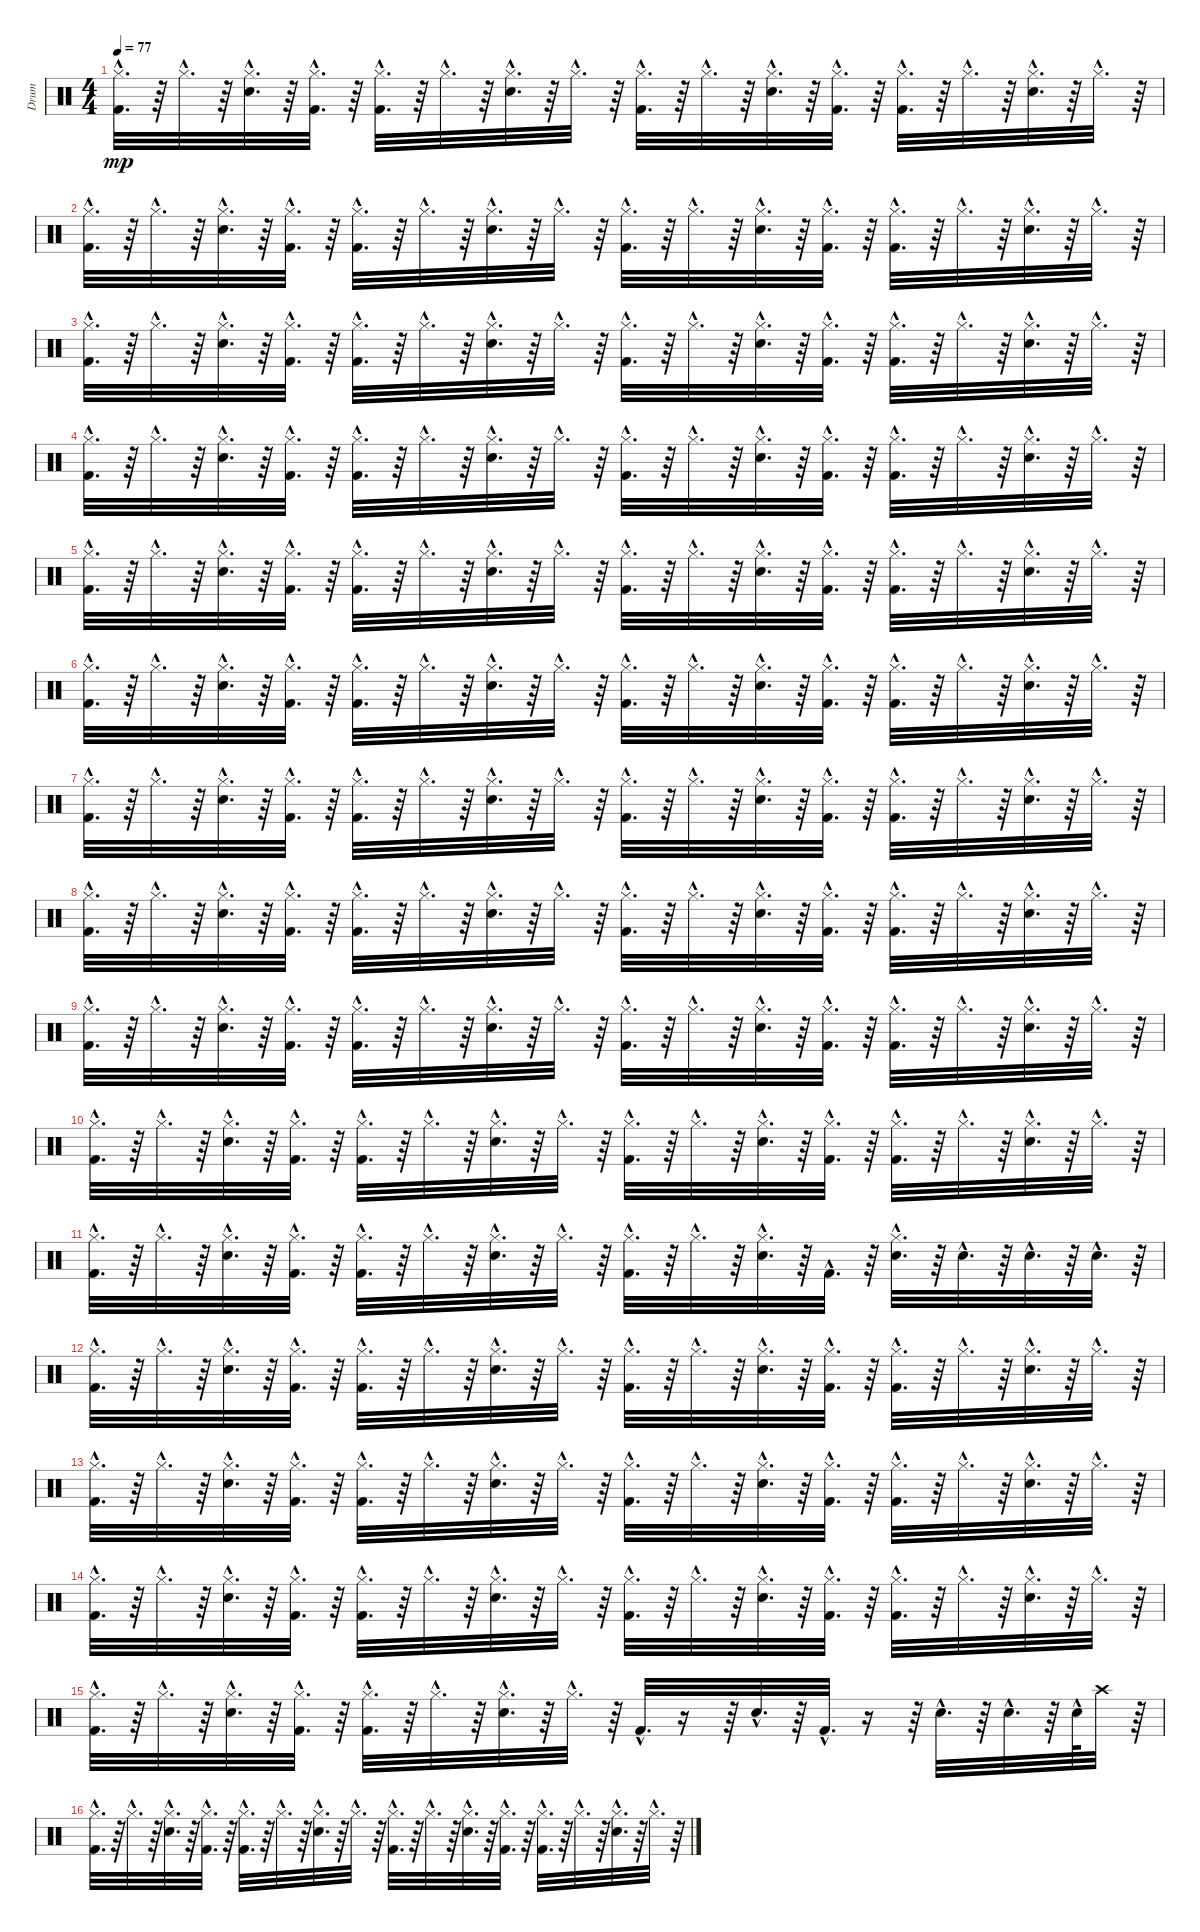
\track ("Drum" "Drum") {instrument percussion}
\staff {score}
\articulation defaults
\ts (4 4)
\tempo 77
\clef neutral
\ks c
("Hi-Hat (closed)"{hac} "Kick (hit) 2"{hac}).32{d dy mp} r.64 "Hi-Hat (closed)"{hac}.32{d} r.64 ("Snare (hit) 2"{hac} "Hi-Hat (closed)"{hac}).32{d} r.64 ("Hi-Hat (closed)"{hac} "Kick (hit) 2"{hac}).32{d} r.64 ("Kick (hit) 2"{hac} "Hi-Hat (closed)"{hac}).32{d} r.64 "Hi-Hat (closed)"{hac}.32{d} r.64 ("Hi-Hat (closed)"{hac} "Snare (hit) 2"{hac}).32{d} r.64 "Hi-Hat (closed)"{hac}.32{d} r.64 ("Kick (hit) 2"{hac} "Hi-Hat (closed)"{hac}).32{d} r.64 "Hi-Hat (closed)"{hac}.32{d} r.64 ("Snare (hit) 2"{hac} "Hi-Hat (closed)"{hac}).32{d} r.64 ("Hi-Hat (closed)"{hac} "Kick (hit) 2"{hac}).32{d} r.64 ("Kick (hit) 2"{hac} "Hi-Hat (closed)"{hac}).32{d} r.64 "Hi-Hat (closed)"{hac}.32{d} r.64 ("Snare (hit) 2"{hac} "Hi-Hat (closed)"{hac}).32{d} r.64 "Hi-Hat (closed)"{hac}.32{d} r.64 |
("Hi-Hat (closed)"{hac} "Kick (hit) 2"{hac}).32{d} r.64 "Hi-Hat (closed)"{hac}.32{d} r.64 ("Snare (hit) 2"{hac} "Hi-Hat (closed)"{hac}).32{d} r.64 ("Kick (hit) 2"{hac} "Hi-Hat (closed)"{hac}).32{d} r.64 ("Kick (hit) 2"{hac} "Hi-Hat (closed)"{hac}).32{d} r.64 "Hi-Hat (closed)"{hac}.32{d} r.64 ("Hi-Hat (closed)"{hac} "Snare (hit) 2"{hac}).32{d} r.64 "Hi-Hat (closed)"{hac}.32{d} r.64 ("Kick (hit) 2"{hac} "Hi-Hat (closed)"{hac}).32{d} r.64 "Hi-Hat (closed)"{hac}.32{d} r.64 ("Snare (hit) 2"{hac} "Hi-Hat (closed)"{hac}).32{d} r.64 ("Hi-Hat (closed)"{hac} "Kick (hit) 2"{hac}).32{d} r.64 ("Kick (hit) 2"{hac} "Hi-Hat (closed)"{hac}).32{d} r.64 "Hi-Hat (closed)"{hac}.32{d} r.64 ("Snare (hit) 2"{hac} "Hi-Hat (closed)"{hac}).32{d} r.64 "Hi-Hat (closed)"{hac}.32{d} r.64 |
("Hi-Hat (closed)"{hac} "Kick (hit) 2"{hac}).32{d} r.64 "Hi-Hat (closed)"{hac}.32{d} r.64 ("Hi-Hat (closed)"{hac} "Snare (hit) 2"{hac}).32{d} r.64 ("Hi-Hat (closed)"{hac} "Kick (hit) 2"{hac}).32{d} r.64 ("Hi-Hat (closed)"{hac} "Kick (hit) 2"{hac}).32{d} r.64 "Hi-Hat (closed)"{hac}.32{d} r.64 ("Hi-Hat (closed)"{hac} "Snare (hit) 2"{hac}).32{d} r.64 "Hi-Hat (closed)"{hac}.32{d} r.64 ("Kick (hit) 2"{hac} "Hi-Hat (closed)"{hac}).32{d} r.64 "Hi-Hat (closed)"{hac}.32{d} r.64 ("Hi-Hat (closed)"{hac} "Snare (hit) 2"{hac}).32{d} r.64 ("Kick (hit) 2"{hac} "Hi-Hat (closed)"{hac}).32{d} r.64 ("Hi-Hat (closed)"{hac} "Kick (hit) 2"{hac}).32{d} r.64 "Hi-Hat (closed)"{hac}.32{d} r.64 ("Snare (hit) 2"{hac} "Hi-Hat (closed)"{hac}).32{d} r.64 "Hi-Hat (closed)"{hac}.32{d} r.64 |
("Kick (hit) 2"{hac} "Hi-Hat (closed)"{hac}).32{d} r.64 "Hi-Hat (closed)"{hac}.32{d} r.64 ("Hi-Hat (closed)"{hac} "Snare (hit) 2"{hac}).32{d} r.64 ("Kick (hit) 2"{hac} "Hi-Hat (closed)"{hac}).32{d} r.64 ("Hi-Hat (closed)"{hac} "Kick (hit) 2"{hac}).32{d} r.64 "Hi-Hat (closed)"{hac}.32{d} r.64 ("Hi-Hat (closed)"{hac} "Snare (hit) 2"{hac}).32{d} r.64 "Hi-Hat (closed)"{hac}.32{d} r.64 ("Kick (hit) 2"{hac} "Hi-Hat (closed)"{hac}).32{d} r.64 "Hi-Hat (closed)"{hac}.32{d} r.64 ("Snare (hit) 2"{hac} "Hi-Hat (closed)"{hac}).32{d} r.64 ("Hi-Hat (closed)"{hac} "Kick (hit) 2"{hac}).32{d} r.64 ("Kick (hit) 2"{hac} "Hi-Hat (closed)"{hac}).32{d} r.64 "Hi-Hat (closed)"{hac}.32{d} r.64 ("Snare (hit) 2"{hac} "Hi-Hat (closed)"{hac}).32{d} r.64 "Hi-Hat (closed)"{hac}.32{d} r.64 |
("Hi-Hat (closed)"{hac} "Kick (hit) 2"{hac}).32{d} r.64 "Hi-Hat (closed)"{hac}.32{d} r.64 ("Hi-Hat (closed)"{hac} "Snare (hit) 2"{hac}).32{d} r.64 ("Kick (hit) 2"{hac} "Hi-Hat (closed)"{hac}).32{d} r.64 ("Kick (hit) 2"{hac} "Hi-Hat (closed)"{hac}).32{d} r.64 "Hi-Hat (closed)"{hac}.32{d} r.64 ("Snare (hit) 2"{hac} "Hi-Hat (closed)"{hac}).32{d} r.64 "Hi-Hat (closed)"{hac}.32{d} r.64 ("Hi-Hat (closed)"{hac} "Kick (hit) 2"{hac}).32{d} r.64 "Hi-Hat (closed)"{hac}.32{d} r.64 ("Snare (hit) 2"{hac} "Hi-Hat (closed)"{hac}).32{d} r.64 ("Hi-Hat (closed)"{hac} "Kick (hit) 2"{hac}).32{d} r.64 ("Hi-Hat (closed)"{hac} "Kick (hit) 2"{hac}).32{d} r.64 "Hi-Hat (closed)"{hac}.32{d} r.64 ("Hi-Hat (closed)"{hac} "Snare (hit) 2"{hac}).32{d} r.64 "Hi-Hat (closed)"{hac}.32{d} r.64 |
("Hi-Hat (closed)"{hac} "Kick (hit) 2"{hac}).32{d} r.64 "Hi-Hat (closed)"{hac}.32{d} r.64 ("Hi-Hat (closed)"{hac} "Snare (hit) 2"{hac}).32{d} r.64 ("Hi-Hat (closed)"{hac} "Kick (hit) 2"{hac}).32{d} r.64 ("Hi-Hat (closed)"{hac} "Kick (hit) 2"{hac}).32{d} r.64 "Hi-Hat (closed)"{hac}.32{d} r.64 ("Hi-Hat (closed)"{hac} "Snare (hit) 2"{hac}).32{d} r.64 "Hi-Hat (closed)"{hac}.32{d} r.64 ("Hi-Hat (closed)"{hac} "Kick (hit) 2"{hac}).32{d} r.64 "Hi-Hat (closed)"{hac}.32{d} r.64 ("Snare (hit) 2"{hac} "Hi-Hat (closed)"{hac}).32{d} r.64 ("Kick (hit) 2"{hac} "Hi-Hat (closed)"{hac}).32{d} r.64 ("Hi-Hat (closed)"{hac} "Kick (hit) 2"{hac}).32{d} r.64 "Hi-Hat (closed)"{hac}.32{d} r.64 ("Snare (hit) 2"{hac} "Hi-Hat (closed)"{hac}).32{d} r.64 "Hi-Hat (closed)"{hac}.32{d} r.64 |
("Hi-Hat (closed)"{hac} "Kick (hit) 2"{hac}).32{d} r.64 "Hi-Hat (closed)"{hac}.32{d} r.64 ("Snare (hit) 2"{hac} "Hi-Hat (closed)"{hac}).32{d} r.64 ("Kick (hit) 2"{hac} "Hi-Hat (closed)"{hac}).32{d} r.64 ("Kick (hit) 2"{hac} "Hi-Hat (closed)"{hac}).32{d} r.64 "Hi-Hat (closed)"{hac}.32{d} r.64 ("Snare (hit) 2"{hac} "Hi-Hat (closed)"{hac}).32{d} r.64 "Hi-Hat (closed)"{hac}.32{d} r.64 ("Hi-Hat (closed)"{hac} "Kick (hit) 2"{hac}).32{d} r.64 "Hi-Hat (closed)"{hac}.32{d} r.64 ("Snare (hit) 2"{hac} "Hi-Hat (closed)"{hac}).32{d} r.64 ("Hi-Hat (closed)"{hac} "Kick (hit) 2"{hac}).32{d} r.64 ("Hi-Hat (closed)"{hac} "Kick (hit) 2"{hac}).32{d} r.64 "Hi-Hat (closed)"{hac}.32{d} r.64 ("Hi-Hat (closed)"{hac} "Snare (hit) 2"{hac}).32{d} r.64 "Hi-Hat (closed)"{hac}.32{d} r.64 |
("Kick (hit) 2"{hac} "Hi-Hat (closed)"{hac}).32{d} r.64 "Hi-Hat (closed)"{hac}.32{d} r.64 ("Hi-Hat (closed)"{hac} "Snare (hit) 2"{hac}).32{d} r.64 ("Kick (hit) 2"{hac} "Hi-Hat (closed)"{hac}).32{d} r.64 ("Hi-Hat (closed)"{hac} "Kick (hit) 2"{hac}).32{d} r.64 "Hi-Hat (closed)"{hac}.32{d} r.64 ("Snare (hit) 2"{hac} "Hi-Hat (closed)"{hac}).32{d} r.64 "Hi-Hat (closed)"{hac}.32{d} r.64 ("Kick (hit) 2"{hac} "Hi-Hat (closed)"{hac}).32{d} r.64 "Hi-Hat (closed)"{hac}.32{d} r.64 ("Hi-Hat (closed)"{hac} "Snare (hit) 2"{hac}).32{d} r.64 ("Hi-Hat (closed)"{hac} "Kick (hit) 2"{hac}).32{d} r.64 ("Hi-Hat (closed)"{hac} "Kick (hit) 2"{hac}).32{d} r.64 "Hi-Hat (closed)"{hac}.32{d} r.64 ("Snare (hit) 2"{hac} "Hi-Hat (closed)"{hac}).32{d} r.64 "Hi-Hat (closed)"{hac}.32{d} r.64 |
("Kick (hit) 2"{hac} "Hi-Hat (closed)"{hac}).32{d} r.64 "Hi-Hat (closed)"{hac}.32{d} r.64 ("Hi-Hat (closed)"{hac} "Snare (hit) 2"{hac}).32{d} r.64 ("Kick (hit) 2"{hac} "Hi-Hat (closed)"{hac}).32{d} r.64 ("Hi-Hat (closed)"{hac} "Kick (hit) 2"{hac}).32{d} r.64 "Hi-Hat (closed)"{hac}.32{d} r.64 ("Hi-Hat (closed)"{hac} "Snare (hit) 2"{hac}).32{d} r.64 "Hi-Hat (closed)"{hac}.32{d} r.64 ("Kick (hit) 2"{hac} "Hi-Hat (closed)"{hac}).32{d} r.64 "Hi-Hat (closed)"{hac}.32{d} r.64 ("Snare (hit) 2"{hac} "Hi-Hat (closed)"{hac}).32{d} r.64 ("Hi-Hat (closed)"{hac} "Kick (hit) 2"{hac}).32{d} r.64 ("Hi-Hat (closed)"{hac} "Kick (hit) 2"{hac}).32{d} r.64 "Hi-Hat (closed)"{hac}.32{d} r.64 ("Hi-Hat (closed)"{hac} "Snare (hit) 2"{hac}).32{d} r.64 "Hi-Hat (closed)"{hac}.32{d} r.64 |
("Kick (hit) 2"{hac} "Hi-Hat (closed)"{hac}).32{d} r.64 "Hi-Hat (closed)"{hac}.32{d} r.64 ("Snare (hit) 2"{hac} "Hi-Hat (closed)"{hac}).32{d} r.64 ("Hi-Hat (closed)"{hac} "Kick (hit) 2"{hac}).32{d} r.64 ("Kick (hit) 2"{hac} "Hi-Hat (closed)"{hac}).32{d} r.64 "Hi-Hat (closed)"{hac}.32{d} r.64 ("Snare (hit) 2"{hac} "Hi-Hat (closed)"{hac}).32{d} r.64 "Hi-Hat (closed)"{hac}.32{d} r.64 ("Hi-Hat (closed)"{hac} "Kick (hit) 2"{hac}).32{d} r.64 "Hi-Hat (closed)"{hac}.32{d} r.64 ("Snare (hit) 2"{hac} "Hi-Hat (closed)"{hac}).32{d} r.64 ("Kick (hit) 2"{hac} "Hi-Hat (closed)"{hac}).32{d} r.64 ("Kick (hit) 2"{hac} "Hi-Hat (closed)"{hac}).32{d} r.64 "Hi-Hat (closed)"{hac}.32{d} r.64 ("Snare (hit) 2"{hac} "Hi-Hat (closed)"{hac}).32{d} r.64 "Hi-Hat (closed)"{hac}.32{d} r.64 |
("Hi-Hat (closed)"{hac} "Kick (hit) 2"{hac}).32{d} r.64 "Hi-Hat (closed)"{hac}.32{d} r.64 ("Snare (hit) 2"{hac} "Hi-Hat (closed)"{hac}).32{d} r.64 ("Hi-Hat (closed)"{hac} "Kick (hit) 2"{hac}).32{d} r.64 ("Hi-Hat (closed)"{hac} "Kick (hit) 2"{hac}).32{d} r.64 "Hi-Hat (closed)"{hac}.32{d} r.64 ("Snare (hit) 2"{hac} "Hi-Hat (closed)"{hac}).32{d} r.64 "Hi-Hat (closed)"{hac}.32{d} r.64 ("Hi-Hat (closed)"{hac} "Kick (hit) 2"{hac}).32{d} r.64 "Hi-Hat (closed)"{hac}.32{d} r.64 ("Hi-Hat (closed)"{hac} "Snare (hit) 2"{hac}).32{d} r.64 "Kick (hit) 2"{hac}.32{d} r.64 ("Hi-Hat (closed)"{hac} "Electric Snare (hit)"{hac}).32{d} r.64 "Electric Snare (hit)"{hac}.32{d} r.64 "Electric Snare (hit)"{hac}.32{d} r.64 "Electric Snare (hit)"{hac}.32{d} r.64 |
("Kick (hit) 2"{hac} "Hi-Hat (closed)"{hac}).32{d} r.64 "Hi-Hat (closed)"{hac}.32{d} r.64 ("Snare (hit) 2"{hac} "Hi-Hat (closed)"{hac}).32{d} r.64 ("Kick (hit) 2"{hac} "Hi-Hat (closed)"{hac}).32{d} r.64 ("Hi-Hat (closed)"{hac} "Kick (hit) 2"{hac}).32{d} r.64 "Hi-Hat (closed)"{hac}.32{d} r.64 ("Hi-Hat (closed)"{hac} "Snare (hit) 2"{hac}).32{d} r.64 "Hi-Hat (closed)"{hac}.32{d} r.64 ("Kick (hit) 2"{hac} "Hi-Hat (closed)"{hac}).32{d} r.64 "Hi-Hat (closed)"{hac}.32{d} r.64 ("Snare (hit) 2"{hac} "Hi-Hat (closed)"{hac}).32{d} r.64 ("Kick (hit) 2"{hac} "Hi-Hat (closed)"{hac}).32{d} r.64 ("Kick (hit) 2"{hac} "Hi-Hat (closed)"{hac}).32{d} r.64 "Hi-Hat (closed)"{hac}.32{d} r.64 ("Hi-Hat (closed)"{hac} "Snare (hit) 2"{hac}).32{d} r.64 "Hi-Hat (closed)"{hac}.32{d} r.64 |
("Hi-Hat (closed)"{hac} "Kick (hit) 2"{hac}).32{d} r.64 "Hi-Hat (closed)"{hac}.32{d} r.64 ("Snare (hit) 2"{hac} "Hi-Hat (closed)"{hac}).32{d} r.64 ("Hi-Hat (closed)"{hac} "Kick (hit) 2"{hac}).32{d} r.64 ("Kick (hit) 2"{hac} "Hi-Hat (closed)"{hac}).32{d} r.64 "Hi-Hat (closed)"{hac}.32{d} r.64 ("Snare (hit) 2"{hac} "Hi-Hat (closed)"{hac}).32{d} r.64 "Hi-Hat (closed)"{hac}.32{d} r.64 ("Hi-Hat (closed)"{hac} "Kick (hit) 2"{hac}).32{d} r.64 "Hi-Hat (closed)"{hac}.32{d} r.64 ("Snare (hit) 2"{hac} "Hi-Hat (closed)"{hac}).32{d} r.64 ("Kick (hit) 2"{hac} "Hi-Hat (closed)"{hac}).32{d} r.64 ("Hi-Hat (closed)"{hac} "Kick (hit) 2"{hac}).32{d} r.64 "Hi-Hat (closed)"{hac}.32{d} r.64 ("Snare (hit) 2"{hac} "Hi-Hat (closed)"{hac}).32{d} r.64 "Hi-Hat (closed)"{hac}.32{d} r.64 |
("Kick (hit) 2"{hac} "Hi-Hat (closed)"{hac}).32{d} r.64 "Hi-Hat (closed)"{hac}.32{d} r.64 ("Snare (hit) 2"{hac} "Hi-Hat (closed)"{hac}).32{d} r.64 ("Kick (hit) 2"{hac} "Hi-Hat (closed)"{hac}).32{d} r.64 ("Kick (hit) 2"{hac} "Hi-Hat (closed)"{hac}).32{d} r.64 "Hi-Hat (closed)"{hac}.32{d} r.64 ("Snare (hit) 2"{hac} "Hi-Hat (closed)"{hac}).32{d} r.64 "Hi-Hat (closed)"{hac}.32{d} r.64 ("Hi-Hat (closed)"{hac} "Kick (hit) 2"{hac}).32{d} r.64 "Hi-Hat (closed)"{hac}.32{d} r.64 ("Hi-Hat (closed)"{hac} "Snare (hit) 2"{hac}).32{d} r.64 ("Hi-Hat (closed)"{hac} "Kick (hit) 2"{hac}).32{d} r.64 ("Kick (hit) 2"{hac} "Hi-Hat (closed)"{hac}).32{d} r.64 "Hi-Hat (closed)"{hac}.32{d} r.64 ("Snare (hit) 2"{hac} "Hi-Hat (closed)"{hac}).32{d} r.64 "Hi-Hat (closed)"{hac}.32{d} r.64 |
("Hi-Hat (closed)"{hac} "Kick (hit) 2"{hac}).32{d} r.64 "Hi-Hat (closed)"{hac}.32{d} r.64 ("Hi-Hat (closed)"{hac} "Snare (hit) 2"{hac}).32{d} r.64 ("Hi-Hat (closed)"{hac} "Kick (hit) 2"{hac}).32{d} r.64 ("Kick (hit) 2"{hac} "Hi-Hat (closed)"{hac}).32{d} r.64 "Hi-Hat (closed)"{hac}.32{d} r.64 ("Hi-Hat (closed)"{hac} "Snare (hit) 2"{hac}).32{d} r.64 "Hi-Hat (closed)"{hac}.32{d} r.64 "Kick (hit) 2"{hac}.32{d} r.16 r.64 "Snare (hit) 2"{hac}.32{d} r.64 "Kick (hit) 2"{hac}.32{d} r.16 r.64 "Snare (hit) 2"{hac}.32{d} r.64 "Snare (hit) 2"{hac}.32{d} r.64 "Snare (hit) 2"{hac}.64 "Crash high (hit)".32 r.64 |
("Kick (hit) 2"{hac} "Hi-Hat (closed)"{hac}).32{d} r.64 "Hi-Hat (closed)"{hac}.32{d} r.64 ("Hi-Hat (closed)"{hac} "Snare (hit) 2"{hac}).32{d} r.64 ("Hi-Hat (closed)"{hac} "Kick (hit) 2"{hac}).32{d} r.64 ("Hi-Hat (closed)"{hac} "Kick (hit) 2"{hac}).32{d} r.64 "Hi-Hat (closed)"{hac}.32{d} r.64 ("Snare (hit) 2"{hac} "Hi-Hat (closed)"{hac}).32{d} r.64 "Hi-Hat (closed)"{hac}.32{d} r.64 ("Kick (hit) 2"{hac} "Hi-Hat (closed)"{hac}).32{d} r.64 "Hi-Hat (closed)"{hac}.32{d} r.64 ("Snare (hit) 2"{hac} "Hi-Hat (closed)"{hac}).32{d} r.64 ("Kick (hit) 2"{hac} "Hi-Hat (closed)"{hac}).32{d} r.64 ("Kick (hit) 2"{hac} "Hi-Hat (closed)"{hac}).32{d} r.64 "Hi-Hat (closed)"{hac}.32{d} r.64 ("Snare (hit) 2"{hac} "Hi-Hat (closed)"{hac}).32{d} r.64 "Hi-Hat (closed)"{hac}.32{d} r.64
